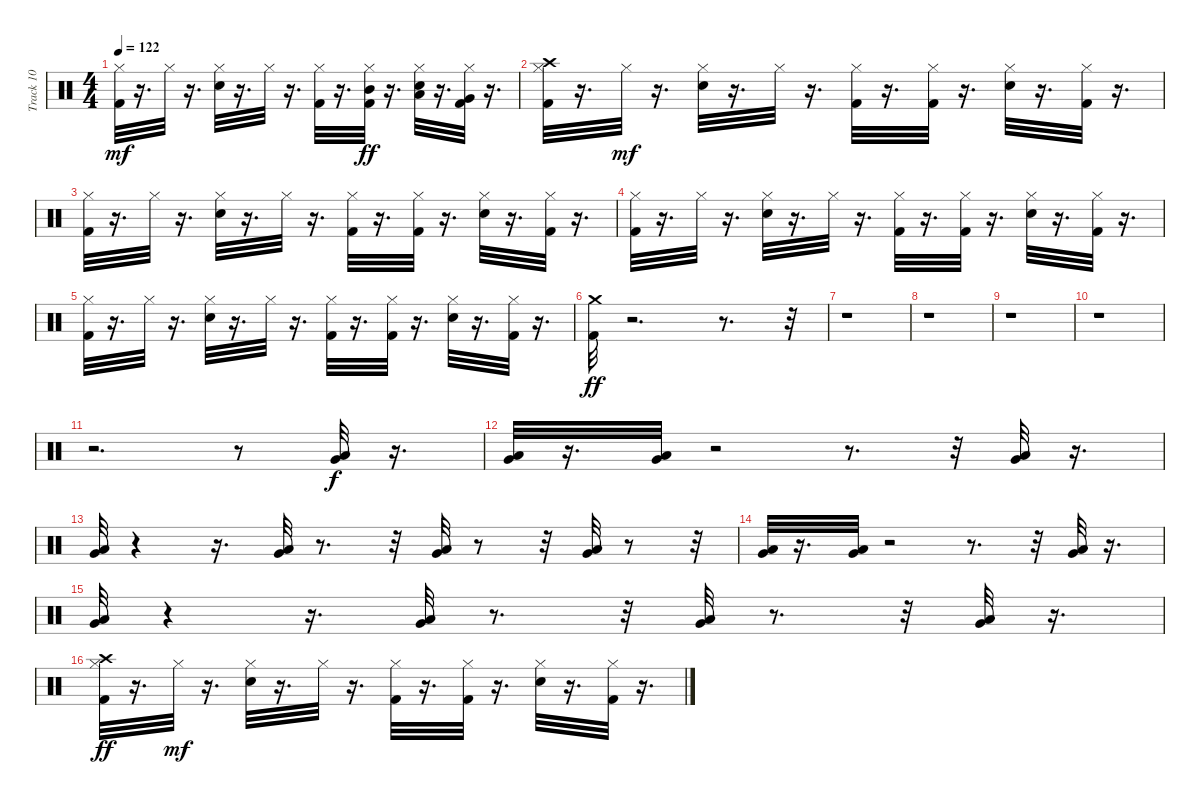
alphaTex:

\track ("Track 10" "Track 10") {instrument percussion}
\staff {score}
\articulation defaults
\ts (4 4)
\tempo 122
\clef neutral
\ks c
("Kick (hit) 2" "Hi-Hat (closed)").32{dy mf} r.16{d} "Hi-Hat (closed)".32 r.16{d} ("Electric Snare (hit)" "Hi-Hat (closed)").32 r.16{d} "Hi-Hat (closed)".32 r.16{d} ("Kick (hit) 2" "Hi-Hat (closed)").32 r.16{d} ("Kick (hit) 2" "Hi-Hat (closed)" "Mid Tom (hit)").32{dy ff} r.16{d} ("Electric Snare (hit)" "Hi-Hat (closed)" "Low Tom (hit)").32 r.16{d} ("Kick (hit) 2" "Hi-Hat (closed)" "Very Low Tom (hit)").32 r.16{d} |
("Kick (hit) 2" "Hi-Hat (closed)" "Crash high (hit)").32 r.16{d} "Hi-Hat (closed)".32{dy mf} r.16{d} ("Electric Snare (hit)" "Hi-Hat (closed)").32 r.16{d} "Hi-Hat (closed)".32 r.16{d} ("Kick (hit) 2" "Hi-Hat (closed)").32 r.16{d} ("Kick (hit) 2" "Hi-Hat (closed)").32 r.16{d} ("Electric Snare (hit)" "Hi-Hat (closed)").32 r.16{d} ("Kick (hit) 2" "Hi-Hat (closed)").32 r.16{d} |
("Kick (hit) 2" "Hi-Hat (closed)").32 r.16{d} "Hi-Hat (closed)".32 r.16{d} ("Electric Snare (hit)" "Hi-Hat (closed)").32 r.16{d} "Hi-Hat (closed)".32 r.16{d} ("Kick (hit) 2" "Hi-Hat (closed)").32 r.16{d} ("Kick (hit) 2" "Hi-Hat (closed)").32 r.16{d} ("Electric Snare (hit)" "Hi-Hat (closed)").32 r.16{d} ("Kick (hit) 2" "Hi-Hat (closed)").32 r.16{d} |
("Kick (hit) 2" "Hi-Hat (closed)").32 r.16{d} "Hi-Hat (closed)".32 r.16{d} ("Electric Snare (hit)" "Hi-Hat (closed)").32 r.16{d} "Hi-Hat (closed)".32 r.16{d} ("Kick (hit) 2" "Hi-Hat (closed)").32 r.16{d} ("Kick (hit) 2" "Hi-Hat (closed)").32 r.16{d} ("Electric Snare (hit)" "Hi-Hat (closed)").32 r.16{d} ("Kick (hit) 2" "Hi-Hat (closed)").32 r.16{d} |
("Kick (hit) 2" "Hi-Hat (closed)").32 r.16{d} "Hi-Hat (closed)".32 r.16{d} ("Electric Snare (hit)" "Hi-Hat (closed)").32 r.16{d} "Hi-Hat (closed)".32 r.16{d} ("Kick (hit) 2" "Hi-Hat (closed)").32 r.16{d} ("Kick (hit) 2" "Hi-Hat (closed)").32 r.16{d} ("Electric Snare (hit)" "Hi-Hat (closed)").32 r.16{d} ("Kick (hit) 2" "Hi-Hat (closed)").32 r.16{d} |
("Kick (hit) 2" "Crash medium (hit)").32{dy ff} r.2{d} r.8{d} r.32 |
r.1 |
r.1 |
r.1 |
r.1 |
r.2{d} r.8 ("Low Floor Tom (hit)" "Very Low Tom (hit)").32{dy f} r.16{d} |
("Low Floor Tom (hit)" "Very Low Tom (hit)").32 r.16{d} ("Low Floor Tom (hit)" "Very Low Tom (hit)").32 r.2 r.8{d} r.32 ("Low Floor Tom (hit)" "Very Low Tom (hit)").32 r.16{d} |
("Low Floor Tom (hit)" "Very Low Tom (hit)").32 r.4 r.16{d} ("Low Floor Tom (hit)" "Very Low Tom (hit)").32 r.8{d} r.32 ("Low Floor Tom (hit)" "Very Low Tom (hit)").32 r.8 r.32 ("Low Floor Tom (hit)" "Very Low Tom (hit)").32 r.8 r.32 |
("Low Floor Tom (hit)" "Very Low Tom (hit)").32 r.16{d} ("Low Floor Tom (hit)" "Very Low Tom (hit)").32 r.2 r.8{d} r.32 ("Low Floor Tom (hit)" "Very Low Tom (hit)").32 r.16{d} |
("Low Floor Tom (hit)" "Very Low Tom (hit)").32 r.4 r.16{d} ("Low Floor Tom (hit)" "Very Low Tom (hit)").32 r.8{d} r.32 ("Low Floor Tom (hit)" "Very Low Tom (hit)").32 r.8{d} r.32 ("Low Floor Tom (hit)" "Very Low Tom (hit)").32 r.16{d} |
("Kick (hit) 2" "Hi-Hat (closed)" "Crash high (hit)").32{dy ff} r.16{d} "Hi-Hat (closed)".32{dy mf} r.16{d} ("Electric Snare (hit)" "Hi-Hat (closed)").32 r.16{d} "Hi-Hat (closed)".32 r.16{d} ("Kick (hit) 2" "Hi-Hat (closed)").32 r.16{d} ("Kick (hit) 2" "Hi-Hat (closed)").32 r.16{d} ("Electric Snare (hit)" "Hi-Hat (closed)").32 r.16{d} ("Kick (hit) 2" "Hi-Hat (closed)").32 r.16{d}
